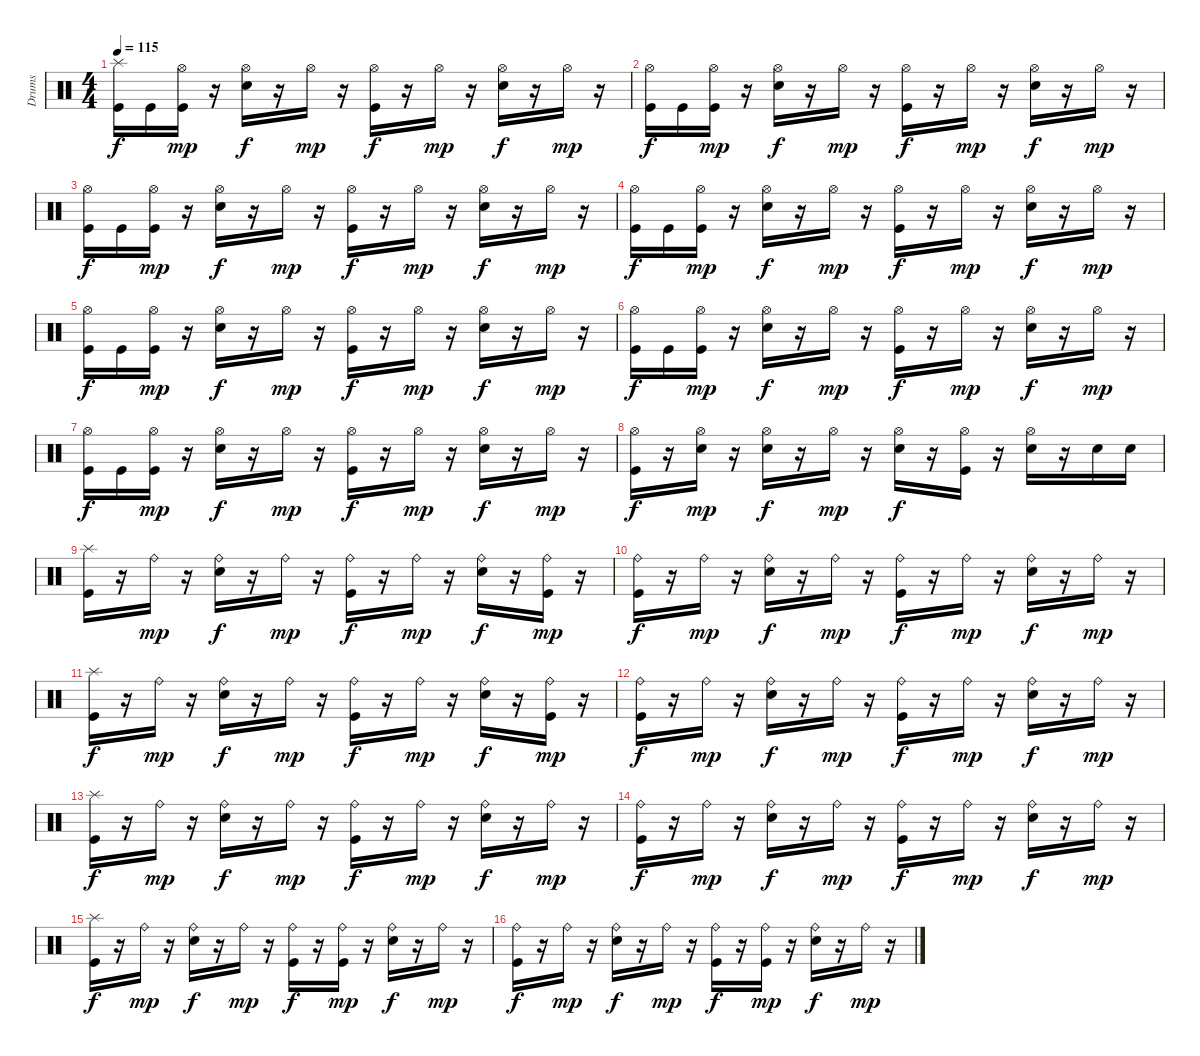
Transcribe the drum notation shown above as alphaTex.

\track ("Drums" "Drums") {instrument percussion}
\staff {score}
\articulation defaults
\ts (4 4)
\tempo 115
\clef neutral
\ks c
("Splash (hit)" "Kick (hit)").16{dy f} "Kick (hit)".16 ("Kick (hit)" "Hi-Hat (open)").16{dy mp} r.16 ("Hi-Hat (open)" "Electric Snare (hit)").16{dy f} r.16 "Hi-Hat (open)".16{dy mp} r.16 ("Hi-Hat (open)" "Kick (hit)").16{dy f} r.16 "Hi-Hat (open)".16{dy mp} r.16 ("Hi-Hat (open)" "Electric Snare (hit)").16{dy f} r.16 "Hi-Hat (open)".16{dy mp} r.16 |
("Hi-Hat (open)" "Kick (hit)").16{dy f} "Kick (hit)".16 ("Kick (hit)" "Hi-Hat (open)").16{dy mp} r.16 ("Hi-Hat (open)" "Electric Snare (hit)").16{dy f} r.16 "Hi-Hat (open)".16{dy mp} r.16 ("Hi-Hat (open)" "Kick (hit)").16{dy f} r.16 "Hi-Hat (open)".16{dy mp} r.16 ("Hi-Hat (open)" "Electric Snare (hit)").16{dy f} r.16 "Hi-Hat (open)".16{dy mp} r.16 |
("Hi-Hat (open)" "Kick (hit)").16{dy f} "Kick (hit)".16 ("Kick (hit)" "Hi-Hat (open)").16{dy mp} r.16 ("Hi-Hat (open)" "Electric Snare (hit)").16{dy f} r.16 "Hi-Hat (open)".16{dy mp} r.16 ("Hi-Hat (open)" "Kick (hit)").16{dy f} r.16 "Hi-Hat (open)".16{dy mp} r.16 ("Hi-Hat (open)" "Electric Snare (hit)").16{dy f} r.16 "Hi-Hat (open)".16{dy mp} r.16 |
("Hi-Hat (open)" "Kick (hit)").16{dy f} "Kick (hit)".16 ("Kick (hit)" "Hi-Hat (open)").16{dy mp} r.16 ("Hi-Hat (open)" "Electric Snare (hit)").16{dy f} r.16 "Hi-Hat (open)".16{dy mp} r.16 ("Hi-Hat (open)" "Kick (hit)").16{dy f} r.16 "Hi-Hat (open)".16{dy mp} r.16 ("Hi-Hat (open)" "Electric Snare (hit)").16{dy f} r.16 "Hi-Hat (open)".16{dy mp} r.16 |
("Hi-Hat (open)" "Kick (hit)").16{dy f} "Kick (hit)".16 ("Kick (hit)" "Hi-Hat (open)").16{dy mp} r.16 ("Hi-Hat (open)" "Electric Snare (hit)").16{dy f} r.16 "Hi-Hat (open)".16{dy mp} r.16 ("Hi-Hat (open)" "Kick (hit)").16{dy f} r.16 "Hi-Hat (open)".16{dy mp} r.16 ("Hi-Hat (open)" "Electric Snare (hit)").16{dy f} r.16 "Hi-Hat (open)".16{dy mp} r.16 |
("Hi-Hat (open)" "Kick (hit)").16{dy f} "Kick (hit)".16 ("Kick (hit)" "Hi-Hat (open)").16{dy mp} r.16 ("Hi-Hat (open)" "Electric Snare (hit)").16{dy f} r.16 "Hi-Hat (open)".16{dy mp} r.16 ("Hi-Hat (open)" "Kick (hit)").16{dy f} r.16 "Hi-Hat (open)".16{dy mp} r.16 ("Hi-Hat (open)" "Electric Snare (hit)").16{dy f} r.16 "Hi-Hat (open)".16{dy mp} r.16 |
("Hi-Hat (open)" "Kick (hit)").16{dy f} "Kick (hit)".16 ("Kick (hit)" "Hi-Hat (open)").16{dy mp} r.16 ("Hi-Hat (open)" "Electric Snare (hit)").16{dy f} r.16 "Hi-Hat (open)".16{dy mp} r.16 ("Hi-Hat (open)" "Kick (hit)").16{dy f} r.16 "Hi-Hat (open)".16{dy mp} r.16 ("Hi-Hat (open)" "Electric Snare (hit)").16{dy f} r.16 "Hi-Hat (open)".16{dy mp} r.16 |
("Hi-Hat (open)" "Kick (hit)").16{dy f} r.16 ("Electric Snare (hit)" "Hi-Hat (open)").16{dy mp} r.16 ("Hi-Hat (open)" "Electric Snare (hit)").16{dy f} r.16 "Hi-Hat (open)".16{dy mp} r.16 ("Electric Snare (hit)" "Hi-Hat (open)").16{dy f} r.16 ("Hi-Hat (open)" "Kick (hit)").16 r.16 ("Hi-Hat (open)" "Electric Snare (hit)").16 r.16 "Electric Snare (hit)".16 "Electric Snare (hit)".16 |
("Splash (hit)" "Kick (hit)").16 r.16 "Ride (bell)".16{dy mp} r.16 ("Ride (bell)" "Electric Snare (hit)").16{dy f} r.16 "Ride (bell)".16{dy mp} r.16 ("Ride (bell)" "Kick (hit)").16{dy f} r.16 "Ride (bell)".16{dy mp} r.16 ("Ride (bell)" "Electric Snare (hit)").16{dy f} r.16 ("Ride (bell)" "Kick (hit)").16{dy mp} r.16 |
("Ride (bell)" "Kick (hit)").16{dy f} r.16 "Ride (bell)".16{dy mp} r.16 ("Ride (bell)" "Electric Snare (hit)").16{dy f} r.16 "Ride (bell)".16{dy mp} r.16 ("Ride (bell)" "Kick (hit)").16{dy f} r.16 "Ride (bell)".16{dy mp} r.16 ("Ride (bell)" "Electric Snare (hit)").16{dy f} r.16 "Ride (bell)".16{dy mp} r.16 |
("Splash (hit)" "Kick (hit)").16{dy f} r.16 "Ride (bell)".16{dy mp} r.16 ("Ride (bell)" "Electric Snare (hit)").16{dy f} r.16 "Ride (bell)".16{dy mp} r.16 ("Ride (bell)" "Kick (hit)").16{dy f} r.16 "Ride (bell)".16{dy mp} r.16 ("Ride (bell)" "Electric Snare (hit)").16{dy f} r.16 ("Ride (bell)" "Kick (hit)").16{dy mp} r.16 |
("Ride (bell)" "Kick (hit)").16{dy f} r.16 "Ride (bell)".16{dy mp} r.16 ("Ride (bell)" "Electric Snare (hit)").16{dy f} r.16 "Ride (bell)".16{dy mp} r.16 ("Ride (bell)" "Kick (hit)").16{dy f} r.16 "Ride (bell)".16{dy mp} r.16 ("Ride (bell)" "Electric Snare (hit)").16{dy f} r.16 "Ride (bell)".16{dy mp} r.16 |
("Splash (hit)" "Kick (hit)").16{dy f} r.16 "Ride (bell)".16{dy mp} r.16 ("Ride (bell)" "Electric Snare (hit)").16{dy f} r.16 "Ride (bell)".16{dy mp} r.16 ("Ride (bell)" "Kick (hit)").16{dy f} r.16 "Ride (bell)".16{dy mp} r.16 ("Ride (bell)" "Electric Snare (hit)").16{dy f} r.16 "Ride (bell)".16{dy mp} r.16 |
("Ride (bell)" "Kick (hit)").16{dy f} r.16 "Ride (bell)".16{dy mp} r.16 ("Ride (bell)" "Electric Snare (hit)").16{dy f} r.16 "Ride (bell)".16{dy mp} r.16 ("Ride (bell)" "Kick (hit)").16{dy f} r.16 "Ride (bell)".16{dy mp} r.16 ("Ride (bell)" "Electric Snare (hit)").16{dy f} r.16 "Ride (bell)".16{dy mp} r.16 |
("Splash (hit)" "Kick (hit)").16{dy f} r.16 "Ride (bell)".16{dy mp} r.16 ("Ride (bell)" "Electric Snare (hit)").16{dy f} r.16 "Ride (bell)".16{dy mp} r.16 ("Ride (bell)" "Kick (hit)").16{dy f} r.16 ("Ride (bell)" "Kick (hit)").16{dy mp} r.16 ("Ride (bell)" "Electric Snare (hit)").16{dy f} r.16 "Ride (bell)".16{dy mp} r.16 |
("Ride (bell)" "Kick (hit)").16{dy f} r.16 "Ride (bell)".16{dy mp} r.16 ("Ride (bell)" "Electric Snare (hit)").16{dy f} r.16 "Ride (bell)".16{dy mp} r.16 ("Ride (bell)" "Kick (hit)").16{dy f} r.16 ("Ride (bell)" "Kick (hit)").16{dy mp} r.16 ("Ride (bell)" "Electric Snare (hit)").16{dy f} r.16 "Ride (bell)".16{dy mp} r.16
